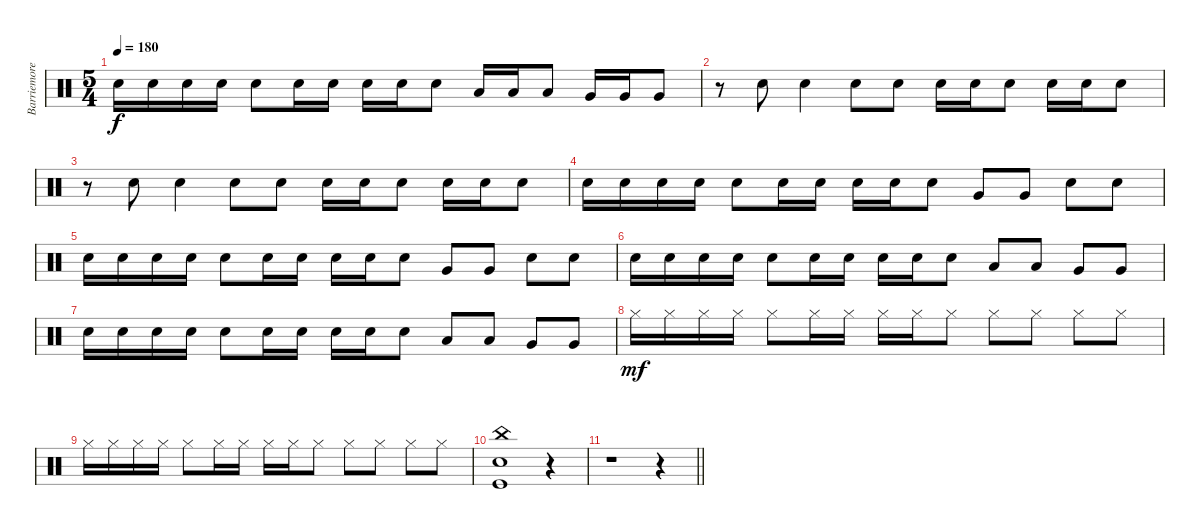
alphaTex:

\track ("Barriemore Barlow (drums)" "Barriemore") {instrument percussion}
\staff {score}
\articulation defaults
\ts (5 4)
\tempo 180
\clef neutral
\ks c "Electric Snare (hit)".16{dy f} "Electric Snare (hit)".16 "Electric Snare (hit)".16 "Electric Snare (hit)".16 "Electric Snare (hit)".8 "Electric Snare (hit)".16 "Electric Snare (hit)".16 "Electric Snare (hit)".16 "Electric Snare (hit)".16 "Electric Snare (hit)".8 "Low Tom (hit)".16 "Low Tom (hit)".16 "Low Tom (hit)".8 "Very Low Tom (hit)".16 "Very Low Tom (hit)".16 "Very Low Tom (hit)".8
|
r.8 "Electric Snare (hit)".8 "Electric Snare (hit)".4 "Electric Snare (hit)".8 "Electric Snare (hit)".8 "Electric Snare (hit)".16 "Electric Snare (hit)".16 "Electric Snare (hit)".8 "Electric Snare (hit)".16 "Electric Snare (hit)".16 "Electric Snare (hit)".8 |
r.8 "Electric Snare (hit)".8 "Electric Snare (hit)".4 "Electric Snare (hit)".8 "Electric Snare (hit)".8 "Electric Snare (hit)".16 "Electric Snare (hit)".16 "Electric Snare (hit)".8 "Electric Snare (hit)".16 "Electric Snare (hit)".16 "Electric Snare (hit)".8 |
"Electric Snare (hit)".16 "Electric Snare (hit)".16 "Electric Snare (hit)".16 "Electric Snare (hit)".16 "Electric Snare (hit)".8 "Electric Snare (hit)".16 "Electric Snare (hit)".16 "Electric Snare (hit)".16 "Electric Snare (hit)".16 "Electric Snare (hit)".8 "Very Low Tom (hit)".8 "Very Low Tom (hit)".8 "Electric Snare (hit)".8 "Electric Snare (hit)".8 |
"Electric Snare (hit)".16 "Electric Snare (hit)".16 "Electric Snare (hit)".16 "Electric Snare (hit)".16 "Electric Snare (hit)".8 "Electric Snare (hit)".16 "Electric Snare (hit)".16 "Electric Snare (hit)".16 "Electric Snare (hit)".16 "Electric Snare (hit)".8 "Very Low Tom (hit)".8 "Very Low Tom (hit)".8 "Electric Snare (hit)".8 "Electric Snare (hit)".8 |
"Electric Snare (hit)".16 "Electric Snare (hit)".16 "Electric Snare (hit)".16 "Electric Snare (hit)".16 "Electric Snare (hit)".8 "Electric Snare (hit)".16 "Electric Snare (hit)".16 "Electric Snare (hit)".16 "Electric Snare (hit)".16 "Electric Snare (hit)".8 "Low Floor Tom (hit)".8 "Low Floor Tom (hit)".8 "Very Low Tom (hit)".8 "Very Low Tom (hit)".8 |
"Electric Snare (hit)".16 "Electric Snare (hit)".16 "Electric Snare (hit)".16 "Electric Snare (hit)".16 "Electric Snare (hit)".8 "Electric Snare (hit)".16 "Electric Snare (hit)".16 "Electric Snare (hit)".16 "Electric Snare (hit)".16 "Electric Snare (hit)".8 "Low Floor Tom (hit)".8 "Low Floor Tom (hit)".8 "Very Low Tom (hit)".8 "Very Low Tom (hit)".8 |
"Hi-Hat (closed)".16{dy mf} "Hi-Hat (closed)".16 "Hi-Hat (closed)".16 "Hi-Hat (closed)".16 "Hi-Hat (closed)".8 "Hi-Hat (closed)".16 "Hi-Hat (closed)".16 "Hi-Hat (closed)".16 "Hi-Hat (closed)".16 "Hi-Hat (closed)".8 "Hi-Hat (closed)".8 "Hi-Hat (closed)".8 "Hi-Hat (closed)".8 "Hi-Hat (closed)".8 |
"Hi-Hat (closed)".16 "Hi-Hat (closed)".16 "Hi-Hat (closed)".16 "Hi-Hat (closed)".16 "Hi-Hat (closed)".8 "Hi-Hat (closed)".16 "Hi-Hat (closed)".16 "Hi-Hat (closed)".16 "Hi-Hat (closed)".16 "Hi-Hat (closed)".8 "Hi-Hat (closed)".8 "Hi-Hat (closed)".8 "Hi-Hat (closed)".8 "Hi-Hat (closed)".8 |
("China (hit)" "Electric Snare (hit)" "Kick (hit)").1 r.4 |
\barLineRight lightlight
r.1 r.4
